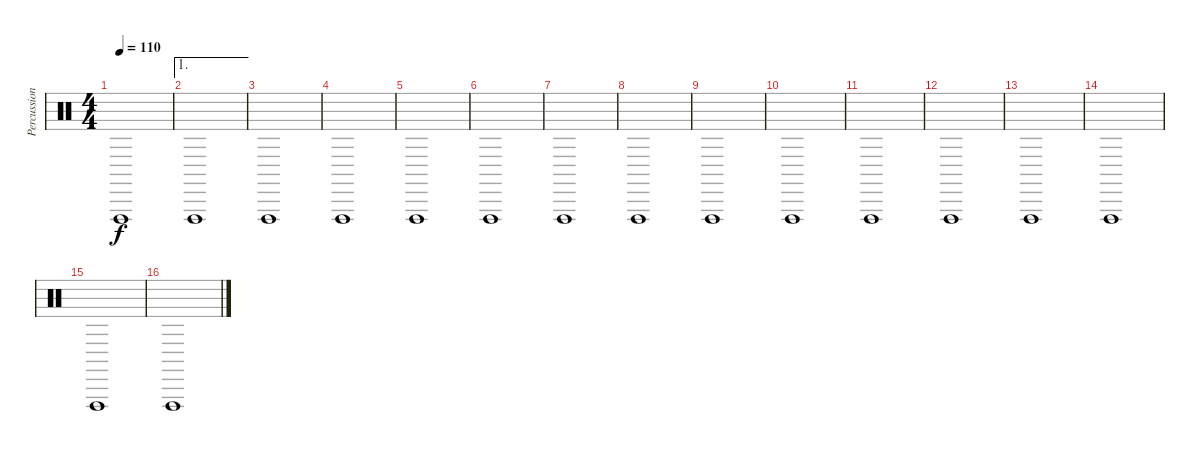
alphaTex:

\track ("Percussion" "Percussion") {instrument percussion}
\staff {score}
\articulation defaults
\ts (4 4)
\tempo 110
\clef neutral
\ks c "Vibraslap (hit)".1{dy f}
|
\ae 1 "Vibraslap (hit)".1
|
"Vibraslap (hit)".1 |
"Vibraslap (hit)".1 |
"Vibraslap (hit)".1 |
"Vibraslap (hit)".1 |
"Vibraslap (hit)".1 |
"Vibraslap (hit)".1 |
"Vibraslap (hit)".1 |
"Vibraslap (hit)".1 |
"Vibraslap (hit)".1 |
"Vibraslap (hit)".1 |
"Vibraslap (hit)".1 |
"Vibraslap (hit)".1 |
"Vibraslap (hit)".1 |
"Vibraslap (hit)".1
